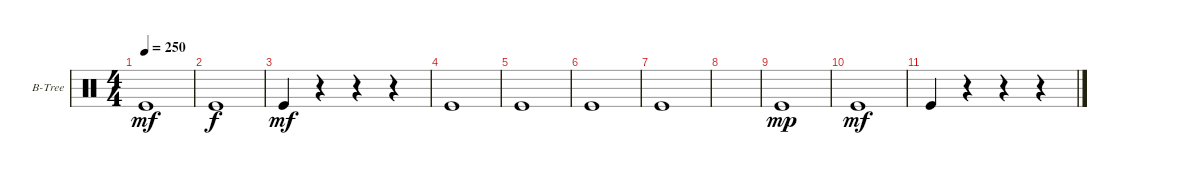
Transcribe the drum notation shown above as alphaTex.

\defaultSystemsLayout 4
\bracketExtendMode groupsimilarinstruments
\firstSystemTrackNameOrientation horizontal
\otherSystemsTrackNameOrientation horizontal
\track ("Bell Tree" "B-Tree") {mute instrument percussion}
\staff {score}
\articulation defaults
\ts (4 4)
\tempo 250
\clef neutral
\scale
0.333333
\ks c "Kick (hit)".1{dy mf}
|
\scale
0.333333 "Kick (hit)".1{dy f} |
\scale
0.333333 "Kick (hit)".4{dy mf} r.4 r.4 r.4 |
\scale
0.333333 "Kick (hit)".1 |
\scale
0.333333 "Kick (hit)".1 |
\scale
0.333333 "Kick (hit)".1 |
\scale
0.333333 "Kick (hit)".1 |
\scale
0.333333 |
\scale
0.333333 "Kick (hit)".1{dy mp} |
\scale
0.333333 "Kick (hit)".1{dy mf} |
\scale
0.333333 "Kick (hit)".4 r.4 r.4 r.4 |
\scale
0.333333 |
\scale
0.333333 |
\scale
0.333333 |
\scale
0.333333 |
\scale
0.333333
